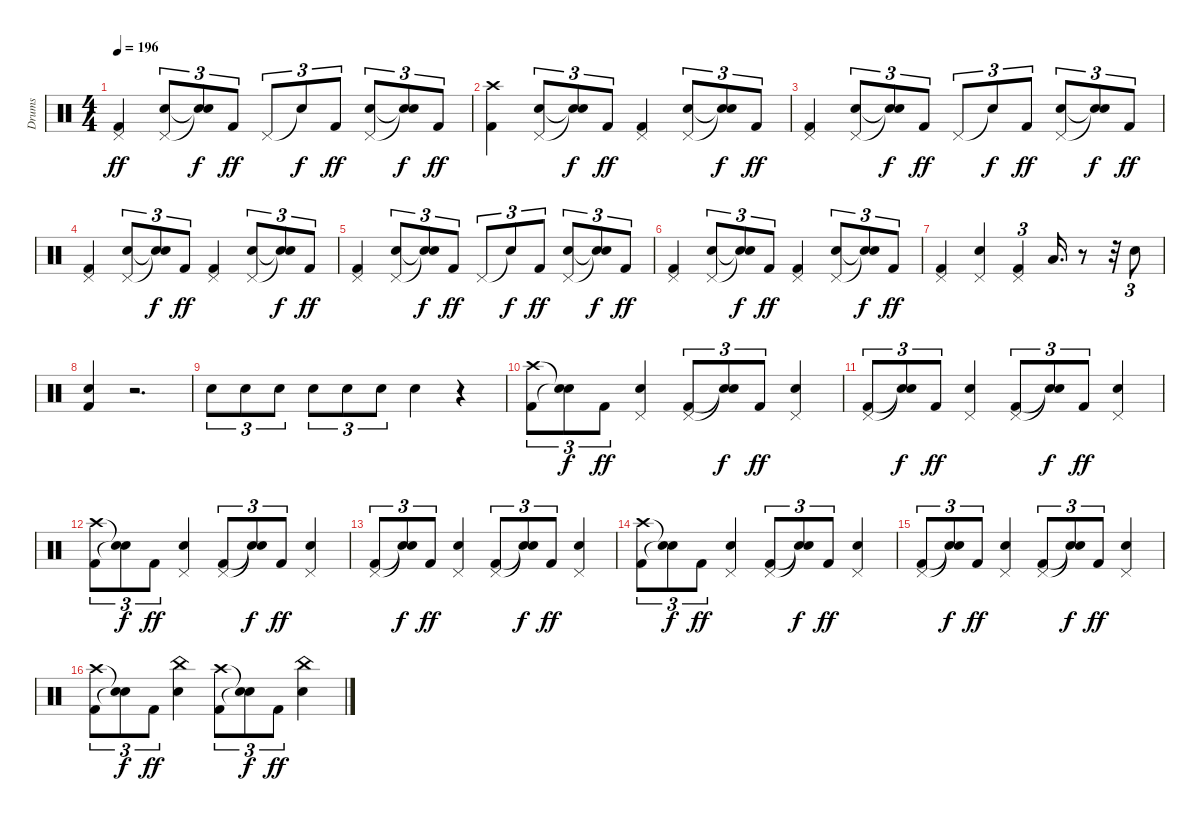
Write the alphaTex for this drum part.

\track ("Drums" "Drums") {instrument percussion}
\staff {score}
\articulation defaults
\ts (4 4)
\tempo 196
\clef neutral
\ks c
("Pedal Hi-Hat (hit)" "Kick (hit) 2").4{dy ff} ("Pedal Hi-Hat (hit)" "Electric Snare (hit)").8{tu (3 2)} ("Snare (hit)"{t} "Snare (hit)"{t}).8{tu (3 2) dy f} "Kick (hit) 2".8{tu (3 2) dy ff} "Pedal Hi-Hat (hit)".8{tu (3 2)} "Snare (hit)"{t}.8{tu (3 2) dy f} "Kick (hit) 2".8{tu (3 2) dy ff} ("Pedal Hi-Hat (hit)" "Electric Snare (hit)").8{tu (3 2)} ("Snare (hit)"{t} "Snare (hit)"{t}).8{tu (3 2) dy f} "Kick (hit) 2".8{tu (3 2) dy ff} |
("Crash high (hit)" "Kick (hit) 2").4 ("Pedal Hi-Hat (hit)" "Electric Snare (hit)").8{tu (3 2)} ("Snare (hit)"{t} "Snare (hit)"{t}).8{tu (3 2) dy f} "Kick (hit) 2".8{tu (3 2) dy ff} ("Pedal Hi-Hat (hit)" "Kick (hit) 2").4 ("Pedal Hi-Hat (hit)" "Electric Snare (hit)").8{tu (3 2)} ("Snare (hit)"{t} "Snare (hit)"{t}).8{tu (3 2) dy f} "Kick (hit) 2".8{tu (3 2) dy ff} |
("Pedal Hi-Hat (hit)" "Kick (hit) 2").4 ("Pedal Hi-Hat (hit)" "Electric Snare (hit)").8{tu (3 2)} ("Snare (hit)"{t} "Snare (hit)"{t}).8{tu (3 2) dy f} "Kick (hit) 2".8{tu (3 2) dy ff} "Pedal Hi-Hat (hit)".8{tu (3 2)} "Snare (hit)"{t}.8{tu (3 2) dy f} "Kick (hit) 2".8{tu (3 2) dy ff} ("Pedal Hi-Hat (hit)" "Electric Snare (hit)").8{tu (3 2)} ("Snare (hit)"{t} "Snare (hit)"{t}).8{tu (3 2) dy f} "Kick (hit) 2".8{tu (3 2) dy ff} |
("Pedal Hi-Hat (hit)" "Kick (hit) 2").4 ("Pedal Hi-Hat (hit)" "Electric Snare (hit)").8{tu (3 2)} ("Snare (hit)"{t} "Snare (hit)"{t}).8{tu (3 2) dy f} "Kick (hit) 2".8{tu (3 2) dy ff} ("Pedal Hi-Hat (hit)" "Kick (hit) 2").4 ("Pedal Hi-Hat (hit)" "Electric Snare (hit)").8{tu (3 2)} ("Snare (hit)"{t} "Snare (hit)"{t}).8{tu (3 2) dy f} "Kick (hit) 2".8{tu (3 2) dy ff} |
("Pedal Hi-Hat (hit)" "Kick (hit) 2").4 ("Pedal Hi-Hat (hit)" "Electric Snare (hit)").8{tu (3 2)} ("Snare (hit)"{t} "Snare (hit)"{t}).8{tu (3 2) dy f} "Kick (hit) 2".8{tu (3 2) dy ff} "Pedal Hi-Hat (hit)".8{tu (3 2)} "Snare (hit)"{t}.8{tu (3 2) dy f} "Kick (hit) 2".8{tu (3 2) dy ff} ("Pedal Hi-Hat (hit)" "Electric Snare (hit)").8{tu (3 2)} ("Snare (hit)"{t} "Snare (hit)"{t}).8{tu (3 2) dy f} "Kick (hit) 2".8{tu (3 2) dy ff} |
("Pedal Hi-Hat (hit)" "Kick (hit) 2").4 ("Pedal Hi-Hat (hit)" "Electric Snare (hit)").8{tu (3 2)} ("Snare (hit)"{t} "Snare (hit)"{t}).8{tu (3 2) dy f} "Kick (hit) 2".8{tu (3 2) dy ff} ("Pedal Hi-Hat (hit)" "Kick (hit) 2").4 ("Pedal Hi-Hat (hit)" "Electric Snare (hit)").8{tu (3 2)} ("Snare (hit)"{t} "Snare (hit)"{t}).8{tu (3 2) dy f} "Kick (hit) 2".8{tu (3 2) dy ff} |
("Pedal Hi-Hat (hit)" "Kick (hit) 2").4 ("Pedal Hi-Hat (hit)" "Electric Snare (hit)").4 ("Pedal Hi-Hat (hit)" "Kick (hit) 2").4{tu (3 2)} "Low Tom (hit)".16{d} r.8 r.32 "Electric Snare (hit)".8{tu (3 2)} |
("Kick (hit) 2" "Electric Snare (hit)").4 r.2{d} |
"Electric Snare (hit)".8{tu (3 2)} "Electric Snare (hit)".8{tu (3 2)} "Electric Snare (hit)".8{tu (3 2)} "Electric Snare (hit)".8{tu (3 2)} "Electric Snare (hit)".8{tu (3 2)} "Electric Snare (hit)".8{tu (3 2)} "Electric Snare (hit)".4 r.4 |
("Kick (hit) 2" "Crash high (hit)").8{tu (3 2)} ("Snare (hit)"{t} "Snare (hit)"{t}).8{tu (3 2) dy f} "Kick (hit) 2".8{tu (3 2) dy ff} ("Pedal Hi-Hat (hit)" "Electric Snare (hit)").4 ("Kick (hit) 2" "Pedal Hi-Hat (hit)").8{tu (3 2)} ("Snare (hit)"{t} "Snare (hit)"{t}).8{tu (3 2) dy f} "Kick (hit) 2".8{tu (3 2) dy ff} ("Pedal Hi-Hat (hit)" "Electric Snare (hit)").4 |
("Kick (hit) 2" "Pedal Hi-Hat (hit)").8{tu (3 2)} ("Snare (hit)"{t} "Snare (hit)"{t}).8{tu (3 2) dy f} "Kick (hit) 2".8{tu (3 2) dy ff} ("Pedal Hi-Hat (hit)" "Electric Snare (hit)").4 ("Kick (hit) 2" "Pedal Hi-Hat (hit)").8{tu (3 2)} ("Snare (hit)"{t} "Snare (hit)"{t}).8{tu (3 2) dy f} "Kick (hit) 2".8{tu (3 2) dy ff} ("Pedal Hi-Hat (hit)" "Electric Snare (hit)").4 |
("Kick (hit) 2" "Crash high (hit)").8{tu (3 2)} ("Snare (hit)"{t} "Snare (hit)"{t}).8{tu (3 2) dy f} "Kick (hit) 2".8{tu (3 2) dy ff} ("Pedal Hi-Hat (hit)" "Electric Snare (hit)").4 ("Kick (hit) 2" "Pedal Hi-Hat (hit)").8{tu (3 2)} ("Snare (hit)"{t} "Snare (hit)"{t}).8{tu (3 2) dy f} "Kick (hit) 2".8{tu (3 2) dy ff} ("Pedal Hi-Hat (hit)" "Electric Snare (hit)").4 |
("Kick (hit) 2" "Pedal Hi-Hat (hit)").8{tu (3 2)} ("Snare (hit)"{t} "Snare (hit)"{t}).8{tu (3 2) dy f} "Kick (hit) 2".8{tu (3 2) dy ff} ("Pedal Hi-Hat (hit)" "Electric Snare (hit)").4 ("Kick (hit) 2" "Pedal Hi-Hat (hit)").8{tu (3 2)} ("Snare (hit)"{t} "Snare (hit)"{t}).8{tu (3 2) dy f} "Kick (hit) 2".8{tu (3 2) dy ff} ("Pedal Hi-Hat (hit)" "Electric Snare (hit)").4 |
("Kick (hit) 2" "Crash high (hit)").8{tu (3 2)} ("Snare (hit)"{t} "Snare (hit)"{t}).8{tu (3 2) dy f} "Kick (hit) 2".8{tu (3 2) dy ff} ("Pedal Hi-Hat (hit)" "Electric Snare (hit)").4 ("Kick (hit) 2" "Pedal Hi-Hat (hit)").8{tu (3 2)} ("Snare (hit)"{t} "Snare (hit)"{t}).8{tu (3 2) dy f} "Kick (hit) 2".8{tu (3 2) dy ff} ("Pedal Hi-Hat (hit)" "Electric Snare (hit)").4 |
("Kick (hit) 2" "Pedal Hi-Hat (hit)").8{tu (3 2)} ("Snare (hit)"{t} "Snare (hit)"{t}).8{tu (3 2) dy f} "Kick (hit) 2".8{tu (3 2) dy ff} ("Pedal Hi-Hat (hit)" "Electric Snare (hit)").4 ("Kick (hit) 2" "Pedal Hi-Hat (hit)").8{tu (3 2)} ("Snare (hit)"{t} "Snare (hit)"{t}).8{tu (3 2) dy f} "Kick (hit) 2".8{tu (3 2) dy ff} ("Pedal Hi-Hat (hit)" "Electric Snare (hit)").4 |
("Crash high (hit)" "Kick (hit) 2").8{tu (3 2)} ("Snare (hit)"{t} "Snare (hit)"{t}).8{tu (3 2) dy f} "Kick (hit) 2".8{tu (3 2) dy ff} ("China (hit)" "Electric Snare (hit)").4 ("Crash high (hit)" "Kick (hit) 2").8{tu (3 2)} ("Snare (hit)"{t} "Snare (hit)"{t}).8{tu (3 2) dy f} "Kick (hit) 2".8{tu (3 2) dy ff} ("China (hit)" "Electric Snare (hit)").4
